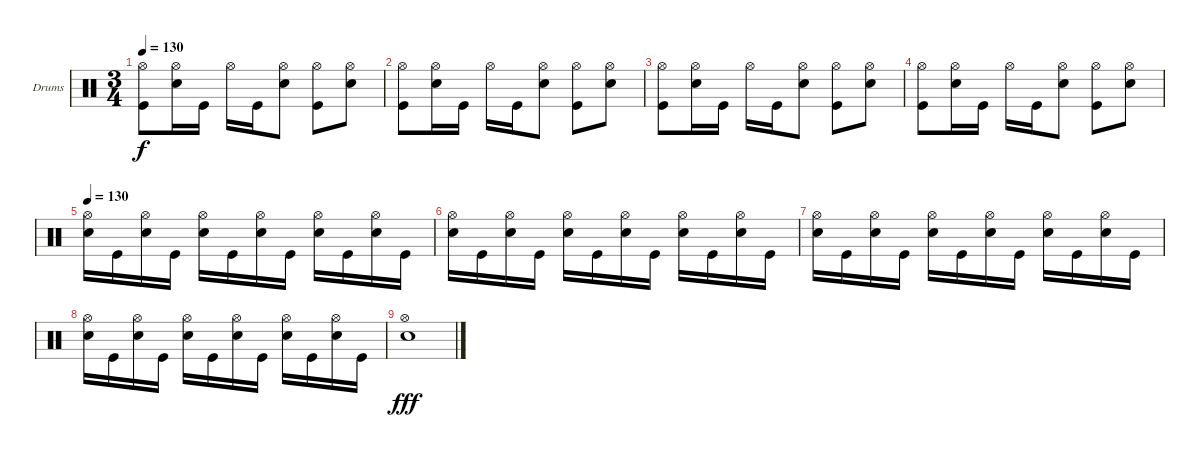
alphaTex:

\bracketExtendMode groupsimilarinstruments
\firstSystemTrackNameOrientation horizontal
\otherSystemsTrackNameOrientation horizontal
\track ("Lars Ulrich (Drum)" "Drums") {instrument percussion}
\staff {score}
\articulation defaults
\ts (3 4)
\tempo 130
\clef neutral
\ks c
("Hi-Hat (open)" "Kick (hit)").8{dy f} ("Hi-Hat (open)" "Snare (hit) 2").16 "Kick (hit)".16 "Hi-Hat (open)".16 "Kick (hit)".16 ("Hi-Hat (open)" "Snare (hit) 2").8 ("Hi-Hat (open)" "Kick (hit)").8 ("Hi-Hat (open)" "Snare (hit) 2").8 |
("Hi-Hat (open)" "Kick (hit)").8 ("Hi-Hat (open)" "Snare (hit) 2").16 "Kick (hit)".16 "Hi-Hat (open)".16 "Kick (hit)".16 ("Hi-Hat (open)" "Snare (hit) 2").8 ("Hi-Hat (open)" "Kick (hit)").8 ("Hi-Hat (open)" "Snare (hit) 2").8 |
("Hi-Hat (open)" "Kick (hit)").8 ("Hi-Hat (open)" "Snare (hit) 2").16 "Kick (hit)".16 "Hi-Hat (open)".16 "Kick (hit)".16 ("Hi-Hat (open)" "Snare (hit) 2").8 ("Hi-Hat (open)" "Kick (hit)").8 ("Hi-Hat (open)" "Snare (hit) 2").8 |
("Hi-Hat (open)" "Kick (hit)").8 ("Hi-Hat (open)" "Snare (hit) 2").16 "Kick (hit)".16 "Hi-Hat (open)".16 "Kick (hit)".16 ("Hi-Hat (open)" "Snare (hit) 2").8 ("Hi-Hat (open)" "Kick (hit)").8 ("Hi-Hat (open)" "Snare (hit) 2").8 |
\tempo 130
("Hi-Hat (open)" "Snare (hit) 2").16 "Kick (hit)".16 ("Hi-Hat (open)" "Snare (hit) 2").16 "Kick (hit)".16 ("Hi-Hat (open)" "Snare (hit) 2").16 "Kick (hit)".16 ("Hi-Hat (open)" "Snare (hit) 2").16 "Kick (hit)".16 ("Hi-Hat (open)" "Snare (hit) 2").16 "Kick (hit)".16 ("Hi-Hat (open)" "Snare (hit) 2").16 "Kick (hit)".16 |
("Hi-Hat (open)" "Snare (hit) 2").16 "Kick (hit)".16 ("Hi-Hat (open)" "Snare (hit) 2").16 "Kick (hit)".16 ("Hi-Hat (open)" "Snare (hit) 2").16 "Kick (hit)".16 ("Hi-Hat (open)" "Snare (hit) 2").16 "Kick (hit)".16 ("Hi-Hat (open)" "Snare (hit) 2").16 "Kick (hit)".16 ("Hi-Hat (open)" "Snare (hit) 2").16 "Kick (hit)".16 |
("Hi-Hat (open)" "Snare (hit) 2").16 "Kick (hit)".16 ("Hi-Hat (open)" "Snare (hit) 2").16 "Kick (hit)".16 ("Hi-Hat (open)" "Snare (hit) 2").16 "Kick (hit)".16 ("Hi-Hat (open)" "Snare (hit) 2").16 "Kick (hit)".16 ("Hi-Hat (open)" "Snare (hit) 2").16 "Kick (hit)".16 ("Hi-Hat (open)" "Snare (hit) 2").16 "Kick (hit)".16 |
("Hi-Hat (open)" "Snare (hit) 2").16 "Kick (hit)".16 ("Hi-Hat (open)" "Snare (hit) 2").16 "Kick (hit)".16 ("Hi-Hat (open)" "Snare (hit) 2").16 "Kick (hit)".16 ("Hi-Hat (open)" "Snare (hit) 2").16 "Kick (hit)".16 ("Hi-Hat (open)" "Snare (hit) 2").16 "Kick (hit)".16 ("Hi-Hat (open)" "Snare (hit) 2").16 "Kick (hit)".16 |
("Hi-Hat (open)" "Snare (hit) 2").1{dy fff}
